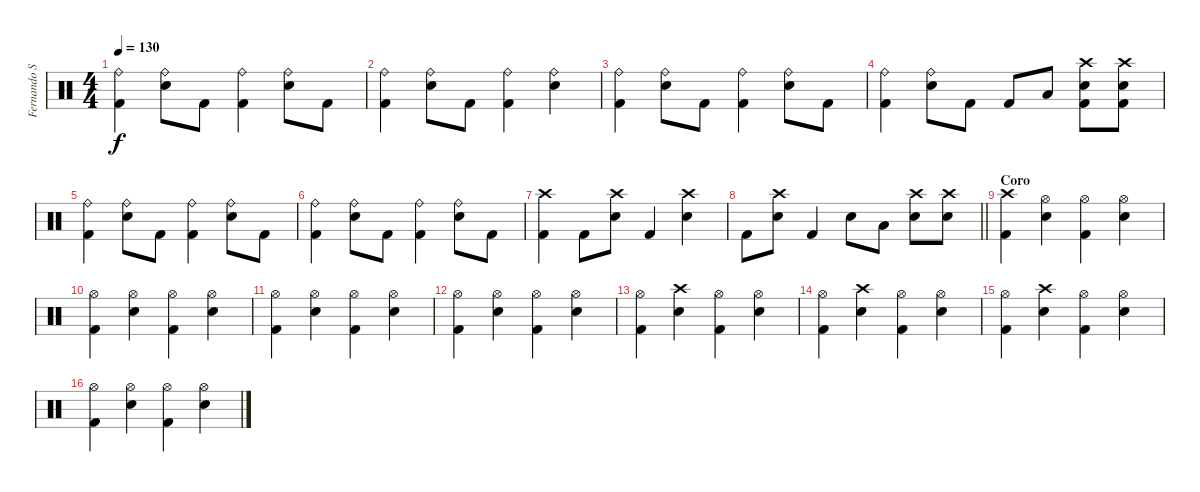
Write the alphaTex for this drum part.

\track ("Fernando Scarcella" "Fernando S") {instrument percussion}
\staff {score}
\articulation defaults
\ts (4 4)
\tempo 130
\clef neutral
\ks c
("Ride (bell)" "Kick (hit) 2").4{dy f} ("Ride (bell)" "Snare (hit) 2").8 "Kick (hit) 2".8 ("Ride (bell)" "Kick (hit) 2").4 ("Ride (bell)" "Snare (hit) 2").8 "Kick (hit) 2".8 |
("Ride (bell)" "Kick (hit) 2").4 ("Ride (bell)" "Snare (hit) 2").8 "Kick (hit) 2".8 ("Ride (bell)" "Kick (hit) 2").4 ("Ride (bell)" "Snare (hit) 2").4 |
("Ride (bell)" "Kick (hit) 2").4 ("Ride (bell)" "Snare (hit) 2").8 "Kick (hit) 2".8 ("Ride (bell)" "Kick (hit) 2").4 ("Ride (bell)" "Snare (hit) 2").8 "Kick (hit) 2".8 |
("Ride (bell)" "Kick (hit) 2").4 ("Ride (bell)" "Snare (hit) 2").8 "Kick (hit) 2".8 "Kick (hit) 2".8 "Low Floor Tom (hit)".8 ("Crash high (hit)" "Snare (hit) 2" "Kick (hit) 2").8 ("Crash high (hit)" "Snare (hit) 2" "Kick (hit) 2").8 |
("Ride (bell)" "Kick (hit) 2").4 ("Ride (bell)" "Snare (hit) 2").8 "Kick (hit) 2".8 ("Ride (bell)" "Kick (hit) 2").4 ("Ride (bell)" "Snare (hit) 2").8 "Kick (hit) 2".8 |
("Ride (bell)" "Kick (hit) 2").4 ("Ride (bell)" "Snare (hit) 2").8 "Kick (hit) 2".8 ("Ride (bell)" "Kick (hit) 2").4 ("Ride (bell)" "Snare (hit) 2").8 "Kick (hit) 2".8 |
("Crash high (hit)" "Kick (hit) 2").4 "Kick (hit) 2".8 ("Crash high (hit)" "Snare (hit) 2").8 "Kick (hit) 2".4 ("Crash high (hit)" "Snare (hit) 2").4 |
\barLineRight lightlight "Kick (hit) 2".8
("Crash high (hit)" "Snare (hit) 2").8 "Kick (hit) 2".4 "Snare (hit) 2".8 "Low Floor Tom (hit)".8 ("Crash high (hit)" "Snare (hit) 2").8 ("Crash high (hit)" "Snare (hit) 2").8 |
\section ("" "Coro")
("Crash high (hit)" "Kick (hit) 2").4 ("Hi-Hat (open)" "Snare (hit) 2").4 ("Hi-Hat (open)" "Kick (hit) 2").4 ("Hi-Hat (open)" "Snare (hit) 2").4 |
("Hi-Hat (open)" "Kick (hit) 2").4 ("Hi-Hat (open)" "Snare (hit) 2").4 ("Hi-Hat (open)" "Kick (hit) 2").4 ("Hi-Hat (open)" "Snare (hit) 2").4 |
("Hi-Hat (open)" "Kick (hit) 2").4 ("Hi-Hat (open)" "Snare (hit) 2").4 ("Hi-Hat (open)" "Kick (hit) 2").4 ("Hi-Hat (open)" "Snare (hit) 2").4 |
("Hi-Hat (open)" "Kick (hit) 2").4 ("Hi-Hat (open)" "Snare (hit) 2").4 ("Hi-Hat (open)" "Kick (hit) 2").4 ("Hi-Hat (open)" "Snare (hit) 2").4 |
("Hi-Hat (open)" "Kick (hit) 2").4 ("Crash high (hit)" "Snare (hit) 2").4 ("Hi-Hat (open)" "Kick (hit) 2").4 ("Hi-Hat (open)" "Snare (hit) 2").4 |
("Hi-Hat (open)" "Kick (hit) 2").4 ("Crash high (hit)" "Snare (hit) 2").4 ("Hi-Hat (open)" "Kick (hit) 2").4 ("Hi-Hat (open)" "Snare (hit) 2").4 |
("Hi-Hat (open)" "Kick (hit) 2").4 ("Crash high (hit)" "Snare (hit) 2").4 ("Hi-Hat (open)" "Kick (hit) 2").4 ("Hi-Hat (open)" "Snare (hit) 2").4 |
("Hi-Hat (open)" "Kick (hit) 2").4 ("Hi-Hat (open)" "Snare (hit) 2").4 ("Hi-Hat (open)" "Kick (hit) 2").4 ("Hi-Hat (open)" "Snare (hit) 2").4
